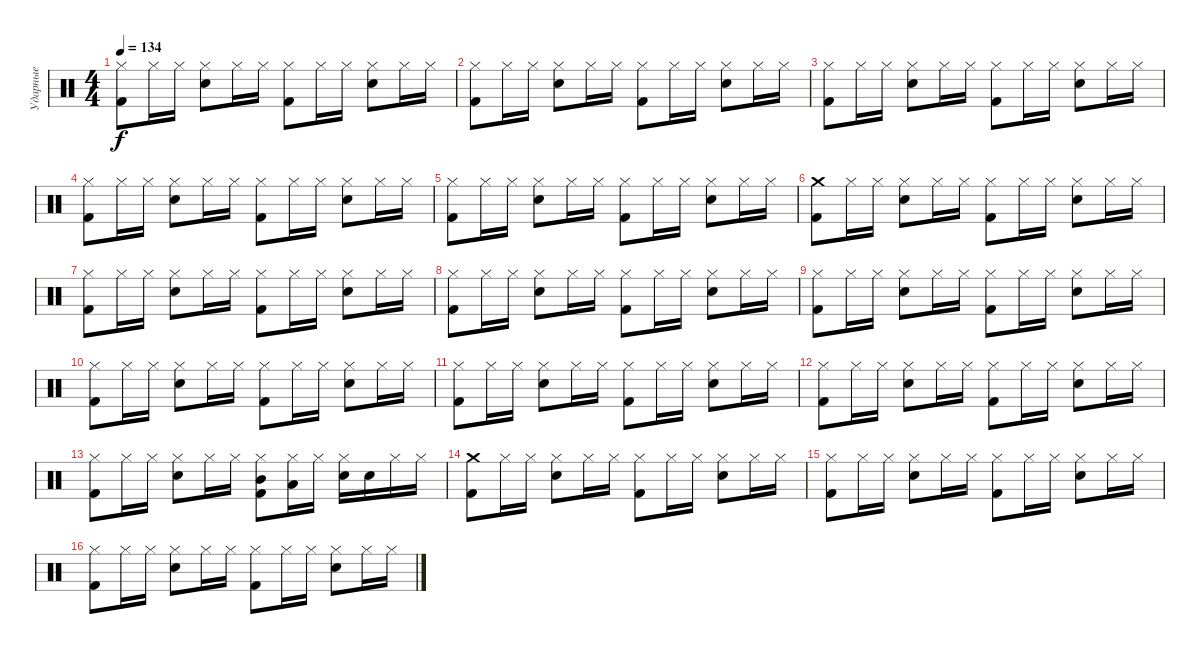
\track ("Ударные" "Ударные") {instrument percussion}
\staff {score}
\articulation defaults
\ts (4 4)
\tempo 134
\clef neutral
\ks c
("Hi-Hat (closed)" "Kick (hit) 2").8{dy f} "Hi-Hat (closed)".16 "Hi-Hat (closed)".16 ("Hi-Hat (closed)" "Snare (hit) 2").8 "Hi-Hat (closed)".16 "Hi-Hat (closed)".16 ("Hi-Hat (closed)" "Kick (hit) 2").8 "Hi-Hat (closed)".16 "Hi-Hat (closed)".16 ("Hi-Hat (closed)" "Snare (hit) 2").8 "Hi-Hat (closed)".16 "Hi-Hat (closed)".16 |
("Hi-Hat (closed)" "Kick (hit) 2").8 "Hi-Hat (closed)".16 "Hi-Hat (closed)".16 ("Hi-Hat (closed)" "Snare (hit) 2").8 "Hi-Hat (closed)".16 "Hi-Hat (closed)".16 ("Hi-Hat (closed)" "Kick (hit) 2").8 "Hi-Hat (closed)".16 "Hi-Hat (closed)".16 ("Hi-Hat (closed)" "Snare (hit) 2").8 "Hi-Hat (closed)".16 "Hi-Hat (closed)".16 |
("Hi-Hat (closed)" "Kick (hit) 2").8 "Hi-Hat (closed)".16 "Hi-Hat (closed)".16 ("Hi-Hat (closed)" "Snare (hit) 2").8 "Hi-Hat (closed)".16 "Hi-Hat (closed)".16 ("Hi-Hat (closed)" "Kick (hit) 2").8 "Hi-Hat (closed)".16 "Hi-Hat (closed)".16 ("Hi-Hat (closed)" "Snare (hit) 2").8 "Hi-Hat (closed)".16 "Hi-Hat (closed)".16 |
("Hi-Hat (closed)" "Kick (hit) 2").8 "Hi-Hat (closed)".16 "Hi-Hat (closed)".16 ("Hi-Hat (closed)" "Snare (hit) 2").8 "Hi-Hat (closed)".16 "Hi-Hat (closed)".16 ("Hi-Hat (closed)" "Kick (hit) 2").8 "Hi-Hat (closed)".16 "Hi-Hat (closed)".16 ("Hi-Hat (closed)" "Snare (hit) 2").8 "Hi-Hat (closed)".16 "Hi-Hat (closed)".16 |
("Hi-Hat (closed)" "Kick (hit) 2").8 "Hi-Hat (closed)".16 "Hi-Hat (closed)".16 ("Hi-Hat (closed)" "Snare (hit) 2").8 "Hi-Hat (closed)".16 "Hi-Hat (closed)".16 ("Hi-Hat (closed)" "Kick (hit) 2").8 "Hi-Hat (closed)".16 "Hi-Hat (closed)".16 ("Hi-Hat (closed)" "Snare (hit) 2").8 "Hi-Hat (closed)".16 "Hi-Hat (closed)".16 |
("Crash medium (hit)" "Kick (hit) 2").8 "Hi-Hat (closed)".16 "Hi-Hat (closed)".16 ("Hi-Hat (closed)" "Snare (hit) 2").8 "Hi-Hat (closed)".16 "Hi-Hat (closed)".16 ("Hi-Hat (closed)" "Kick (hit) 2").8 "Hi-Hat (closed)".16 "Hi-Hat (closed)".16 ("Hi-Hat (closed)" "Snare (hit) 2").8 "Hi-Hat (closed)".16 "Hi-Hat (closed)".16 |
("Hi-Hat (closed)" "Kick (hit) 2").8 "Hi-Hat (closed)".16 "Hi-Hat (closed)".16 ("Hi-Hat (closed)" "Snare (hit) 2").8 "Hi-Hat (closed)".16 "Hi-Hat (closed)".16 ("Hi-Hat (closed)" "Kick (hit) 2").8 "Hi-Hat (closed)".16 "Hi-Hat (closed)".16 ("Hi-Hat (closed)" "Snare (hit) 2").8 "Hi-Hat (closed)".16 "Hi-Hat (closed)".16 |
("Hi-Hat (closed)" "Kick (hit) 2").8 "Hi-Hat (closed)".16 "Hi-Hat (closed)".16 ("Hi-Hat (closed)" "Snare (hit) 2").8 "Hi-Hat (closed)".16 "Hi-Hat (closed)".16 ("Hi-Hat (closed)" "Kick (hit) 2").8 "Hi-Hat (closed)".16 "Hi-Hat (closed)".16 ("Hi-Hat (closed)" "Snare (hit) 2").8 "Hi-Hat (closed)".16 "Hi-Hat (closed)".16 |
("Hi-Hat (closed)" "Kick (hit) 2").8 "Hi-Hat (closed)".16 "Hi-Hat (closed)".16 ("Hi-Hat (closed)" "Snare (hit) 2").8 "Hi-Hat (closed)".16 "Hi-Hat (closed)".16 ("Hi-Hat (closed)" "Kick (hit) 2").8 "Hi-Hat (closed)".16 "Hi-Hat (closed)".16 ("Hi-Hat (closed)" "Snare (hit) 2").8 "Hi-Hat (closed)".16 "Hi-Hat (closed)".16 |
("Hi-Hat (closed)" "Kick (hit) 2").8 "Hi-Hat (closed)".16 "Hi-Hat (closed)".16 ("Hi-Hat (closed)" "Snare (hit) 2").8 "Hi-Hat (closed)".16 "Hi-Hat (closed)".16 ("Hi-Hat (closed)" "Kick (hit) 2").8 "Hi-Hat (closed)".16 "Hi-Hat (closed)".16 ("Hi-Hat (closed)" "Snare (hit) 2").8 "Hi-Hat (closed)".16 "Hi-Hat (closed)".16 |
("Hi-Hat (closed)" "Kick (hit) 2").8 "Hi-Hat (closed)".16 "Hi-Hat (closed)".16 ("Hi-Hat (closed)" "Snare (hit) 2").8 "Hi-Hat (closed)".16 "Hi-Hat (closed)".16 ("Hi-Hat (closed)" "Kick (hit) 2").8 "Hi-Hat (closed)".16 "Hi-Hat (closed)".16 ("Hi-Hat (closed)" "Snare (hit) 2").8 "Hi-Hat (closed)".16 "Hi-Hat (closed)".16 |
("Hi-Hat (closed)" "Kick (hit) 2").8 "Hi-Hat (closed)".16 "Hi-Hat (closed)".16 ("Hi-Hat (closed)" "Snare (hit) 2").8 "Hi-Hat (closed)".16 "Hi-Hat (closed)".16 ("Hi-Hat (closed)" "Kick (hit) 2").8 "Hi-Hat (closed)".16 "Hi-Hat (closed)".16 ("Hi-Hat (closed)" "Snare (hit) 2").8 "Hi-Hat (closed)".16 "Hi-Hat (closed)".16 |
("Hi-Hat (closed)" "Kick (hit) 2").8 "Hi-Hat (closed)".16 "Hi-Hat (closed)".16 ("Hi-Hat (closed)" "Snare (hit) 2").8 "Hi-Hat (closed)".16 "Hi-Hat (closed)".16 ("Hi-Hat (closed)" "Mid Tom (hit)" "Kick (hit) 2").8 ("Hi-Hat (closed)" "Low Tom (hit)").16 "Hi-Hat (closed)".16 ("Hi-Hat (closed)" "Snare (hit) 2").16 "Snare (hit) 2".16 "Hi-Hat (closed)".16 "Hi-Hat (closed)".16 |
("Crash medium (hit)" "Kick (hit) 2").8 "Hi-Hat (closed)".16 "Hi-Hat (closed)".16 ("Hi-Hat (closed)" "Snare (hit) 2").8 "Hi-Hat (closed)".16 "Hi-Hat (closed)".16 ("Hi-Hat (closed)" "Kick (hit) 2").8 "Hi-Hat (closed)".16 "Hi-Hat (closed)".16 ("Hi-Hat (closed)" "Snare (hit) 2").8 "Hi-Hat (closed)".16 "Hi-Hat (closed)".16 |
("Hi-Hat (closed)" "Kick (hit) 2").8 "Hi-Hat (closed)".16 "Hi-Hat (closed)".16 ("Hi-Hat (closed)" "Snare (hit) 2").8 "Hi-Hat (closed)".16 "Hi-Hat (closed)".16 ("Hi-Hat (closed)" "Kick (hit) 2").8 "Hi-Hat (closed)".16 "Hi-Hat (closed)".16 ("Hi-Hat (closed)" "Snare (hit) 2").8 "Hi-Hat (closed)".16 "Hi-Hat (closed)".16 |
("Hi-Hat (closed)" "Kick (hit) 2").8 "Hi-Hat (closed)".16 "Hi-Hat (closed)".16 ("Hi-Hat (closed)" "Snare (hit) 2").8 "Hi-Hat (closed)".16 "Hi-Hat (closed)".16 ("Hi-Hat (closed)" "Kick (hit) 2").8 "Hi-Hat (closed)".16 "Hi-Hat (closed)".16 ("Hi-Hat (closed)" "Snare (hit) 2").8 "Hi-Hat (closed)".16 "Hi-Hat (closed)".16
